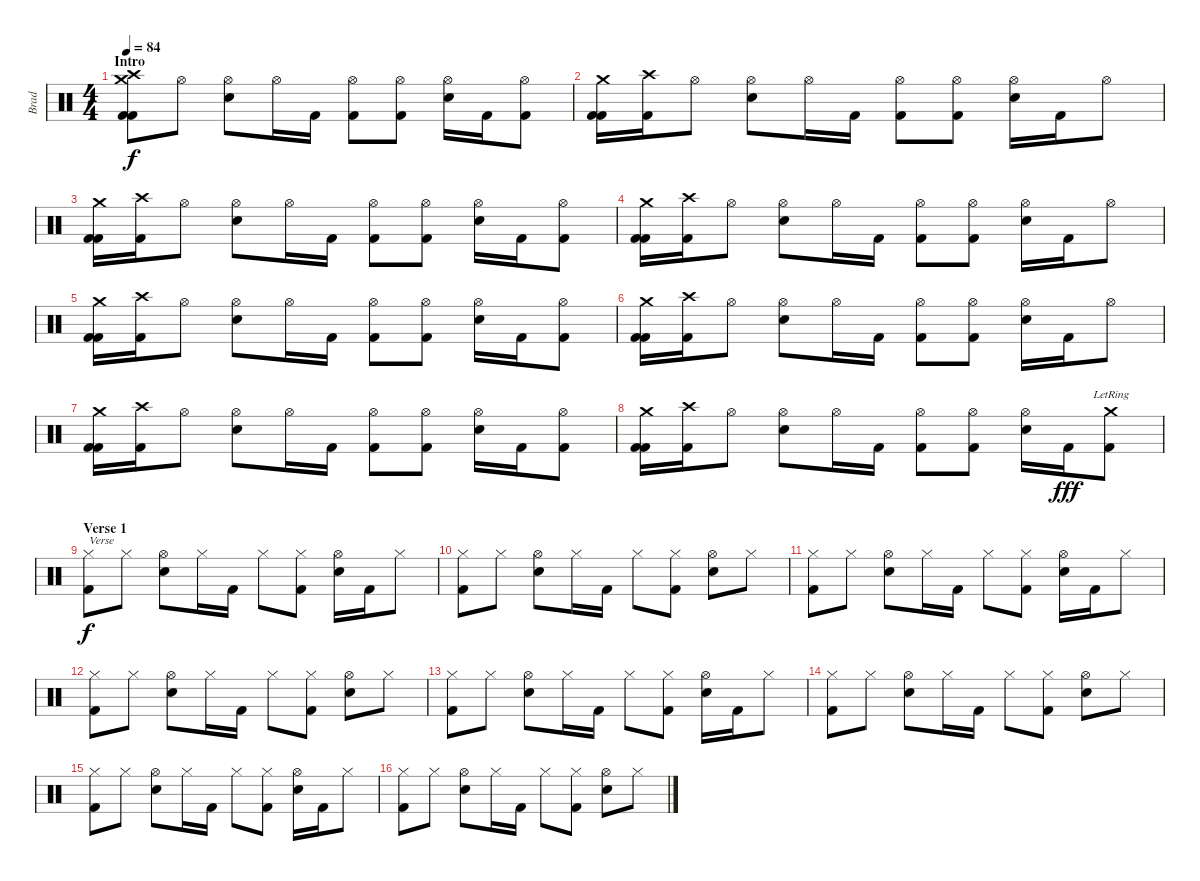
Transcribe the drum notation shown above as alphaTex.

\track ("Brad" "Brad") {instrument percussion}
\staff {score}
\articulation defaults
\ts (4 4)
\section ("" "Intro")
\tempo 84
\clef neutral
\ks c
("Crash medium (hit)" "Crash high (hit)" "Kick (hit) 2" "Kick (hit) 2").8{dy f} "Hi-Hat (open)".8 ("Hi-Hat (open)" "Electric Snare (hit)").8 "Hi-Hat (open)".16 "Kick (hit) 2".16 ("Hi-Hat (open)" "Kick (hit) 2").8 ("Hi-Hat (open)" "Kick (hit) 2").8 ("Hi-Hat (open)" "Electric Snare (hit)").16 "Kick (hit) 2".16 ("Hi-Hat (open)" "Kick (hit) 2").8 |
("Crash medium (hit)" "Kick (hit) 2" "Kick (hit) 2").16 ("Crash high (hit)" "Kick (hit) 2").16 "Hi-Hat (open)".8 ("Hi-Hat (open)" "Electric Snare (hit)").8 "Hi-Hat (open)".16 "Kick (hit) 2".16 ("Hi-Hat (open)" "Kick (hit) 2").8 ("Hi-Hat (open)" "Kick (hit) 2").8 ("Hi-Hat (open)" "Electric Snare (hit)").16 "Kick (hit) 2".16 "Hi-Hat (open)".8 |
("Crash medium (hit)" "Kick (hit) 2" "Kick (hit) 2").16 ("Crash high (hit)" "Kick (hit) 2").16 "Hi-Hat (open)".8 ("Hi-Hat (open)" "Electric Snare (hit)").8 "Hi-Hat (open)".16 "Kick (hit) 2".16 ("Hi-Hat (open)" "Kick (hit) 2").8 ("Hi-Hat (open)" "Kick (hit) 2").8 ("Hi-Hat (open)" "Electric Snare (hit)").16 "Kick (hit) 2".16 ("Hi-Hat (open)" "Kick (hit) 2").8 |
("Crash medium (hit)" "Kick (hit) 2" "Kick (hit) 2").16 ("Crash high (hit)" "Kick (hit) 2").16 "Hi-Hat (open)".8 ("Hi-Hat (open)" "Electric Snare (hit)").8 "Hi-Hat (open)".16 "Kick (hit) 2".16 ("Hi-Hat (open)" "Kick (hit) 2").8 ("Hi-Hat (open)" "Kick (hit) 2").8 ("Hi-Hat (open)" "Electric Snare (hit)").16 "Kick (hit) 2".16 "Hi-Hat (open)".8 |
("Crash medium (hit)" "Kick (hit) 2" "Kick (hit) 2").16 ("Crash high (hit)" "Kick (hit) 2").16 "Hi-Hat (open)".8 ("Hi-Hat (open)" "Electric Snare (hit)").8 "Hi-Hat (open)".16 "Kick (hit) 2".16 ("Hi-Hat (open)" "Kick (hit) 2").8 ("Hi-Hat (open)" "Kick (hit) 2").8 ("Hi-Hat (open)" "Electric Snare (hit)").16 "Kick (hit) 2".16 ("Hi-Hat (open)" "Kick (hit) 2").8 |
("Crash medium (hit)" "Kick (hit) 2" "Kick (hit) 2").16 ("Crash high (hit)" "Kick (hit) 2").16 "Hi-Hat (open)".8 ("Hi-Hat (open)" "Electric Snare (hit)").8 "Hi-Hat (open)".16 "Kick (hit) 2".16 ("Hi-Hat (open)" "Kick (hit) 2").8 ("Hi-Hat (open)" "Kick (hit) 2").8 ("Hi-Hat (open)" "Electric Snare (hit)").16 "Kick (hit) 2".16 "Hi-Hat (open)".8 |
("Crash medium (hit)" "Kick (hit) 2" "Kick (hit) 2").16 ("Crash high (hit)" "Kick (hit) 2").16 "Hi-Hat (open)".8 ("Hi-Hat (open)" "Electric Snare (hit)").8 "Hi-Hat (open)".16 "Kick (hit) 2".16 ("Hi-Hat (open)" "Kick (hit) 2").8 ("Hi-Hat (open)" "Kick (hit) 2").8 ("Hi-Hat (open)" "Electric Snare (hit)").16 "Kick (hit) 2".16 ("Hi-Hat (open)" "Kick (hit) 2").8 |
("Crash medium (hit)" "Kick (hit) 2" "Kick (hit) 2").16 ("Crash high (hit)" "Kick (hit) 2").16 "Hi-Hat (open)".8 ("Hi-Hat (open)" "Electric Snare (hit)").8 "Hi-Hat (open)".16 "Kick (hit) 2".16 ("Hi-Hat (open)" "Kick (hit) 2").8 ("Hi-Hat (open)" "Kick (hit) 2").8 ("Hi-Hat (open)" "Electric Snare (hit)").16 "Kick (hit) 2".16{dy fff} ("Crash medium (hit)"{lr} "Kick (hit) 2").8 |
\section ("" "Verse 1")
("Hi-Hat (closed)" "Kick (hit) 2").8{txt "Verse" dy f} "Hi-Hat (closed)".8 ("Hi-Hat (open)" "Electric Snare (hit)").8 "Hi-Hat (closed)".16 "Kick (hit) 2".16 "Hi-Hat (closed)".8 ("Hi-Hat (closed)" "Kick (hit) 2").8 ("Hi-Hat (open)" "Electric Snare (hit)").16 "Kick (hit) 2".16 "Hi-Hat (closed)".8 |
("Hi-Hat (closed)" "Kick (hit) 2").8 "Hi-Hat (closed)".8 ("Hi-Hat (open)" "Electric Snare (hit)").8 "Hi-Hat (closed)".16 "Kick (hit) 2".16 "Hi-Hat (closed)".8 ("Hi-Hat (closed)" "Kick (hit) 2").8 ("Hi-Hat (open)" "Electric Snare (hit)").8 "Hi-Hat (closed)".8 |
("Hi-Hat (closed)" "Kick (hit) 2").8 "Hi-Hat (closed)".8 ("Hi-Hat (open)" "Electric Snare (hit)").8 "Hi-Hat (closed)".16 "Kick (hit) 2".16 "Hi-Hat (closed)".8 ("Hi-Hat (closed)" "Kick (hit) 2").8 ("Hi-Hat (open)" "Electric Snare (hit)").16 "Kick (hit) 2".16 "Hi-Hat (closed)".8 |
("Hi-Hat (closed)" "Kick (hit) 2").8 "Hi-Hat (closed)".8 ("Hi-Hat (open)" "Electric Snare (hit)").8 "Hi-Hat (closed)".16 "Kick (hit) 2".16 "Hi-Hat (closed)".8 ("Hi-Hat (closed)" "Kick (hit) 2").8 ("Hi-Hat (open)" "Electric Snare (hit)").8 "Hi-Hat (closed)".8 |
("Hi-Hat (closed)" "Kick (hit) 2").8 "Hi-Hat (closed)".8 ("Hi-Hat (open)" "Electric Snare (hit)").8 "Hi-Hat (closed)".16 "Kick (hit) 2".16 "Hi-Hat (closed)".8 ("Hi-Hat (closed)" "Kick (hit) 2").8 ("Hi-Hat (open)" "Electric Snare (hit)").16 "Kick (hit) 2".16 "Hi-Hat (closed)".8 |
("Hi-Hat (closed)" "Kick (hit) 2").8 "Hi-Hat (closed)".8 ("Hi-Hat (open)" "Electric Snare (hit)").8 "Hi-Hat (closed)".16 "Kick (hit) 2".16 "Hi-Hat (closed)".8 ("Hi-Hat (closed)" "Kick (hit) 2").8 ("Hi-Hat (open)" "Electric Snare (hit)").8 "Hi-Hat (closed)".8 |
("Hi-Hat (closed)" "Kick (hit) 2").8 "Hi-Hat (closed)".8 ("Hi-Hat (open)" "Electric Snare (hit)").8 "Hi-Hat (closed)".16 "Kick (hit) 2".16 "Hi-Hat (closed)".8 ("Hi-Hat (closed)" "Kick (hit) 2").8 ("Hi-Hat (open)" "Electric Snare (hit)").16 "Kick (hit) 2".16 "Hi-Hat (closed)".8 |
("Hi-Hat (closed)" "Kick (hit) 2").8 "Hi-Hat (closed)".8 ("Hi-Hat (open)" "Electric Snare (hit)").8 "Hi-Hat (closed)".16 "Kick (hit) 2".16 "Hi-Hat (closed)".8 ("Hi-Hat (closed)" "Kick (hit) 2").8 ("Hi-Hat (open)" "Electric Snare (hit)").8 "Hi-Hat (closed)".8
